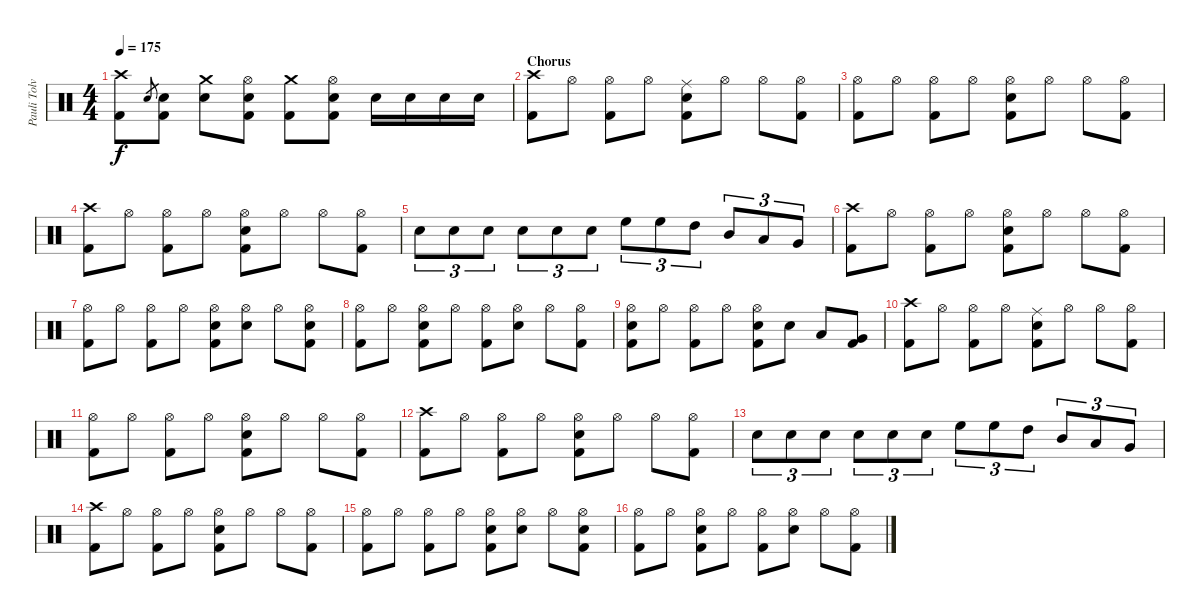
\track ("Pauli Tolvanen-Drums" "Pauli Tolv") {instrument percussion}
\staff {score}
\articulation defaults
\ts (4 4)
\tempo 175
\clef neutral
\ks c
("Crash high (hit)" "Kick (hit) 2").8{dy f} "Snare (hit) 2".8{gr} ("Snare (hit) 2" "Kick (hit) 2").8 ("Crash medium (hit)" "Snare (hit) 2").8 ("Hi-Hat (open)" "Snare (hit) 2" "Kick (hit) 2").8 ("Crash medium (hit)" "Kick (hit) 2").8 ("Hi-Hat (open)" "Snare (hit) 2" "Kick (hit) 2").8 "Snare (hit) 2".16 "Snare (hit) 2".16 "Snare (hit) 2".16 "Snare (hit) 2".16 |
\section ("" "Chorus")
("Crash high (hit)" "Kick (hit) 2").8 "Hi-Hat (open)".8 ("Hi-Hat (open)" "Kick (hit) 2").8 "Hi-Hat (open)".8 ("Ride (middle)" "Snare (hit) 2" "Kick (hit) 2").8 "Hi-Hat (open)".8 "Hi-Hat (open)".8 ("Hi-Hat (open)" "Kick (hit) 2").8 |
("Hi-Hat (open)" "Kick (hit) 2").8 "Hi-Hat (open)".8 ("Hi-Hat (open)" "Kick (hit) 2").8 "Hi-Hat (open)".8 ("Hi-Hat (open)" "Snare (hit) 2" "Kick (hit) 2").8 "Hi-Hat (open)".8 "Hi-Hat (open)".8 ("Hi-Hat (open)" "Kick (hit) 2").8 |
("Crash high (hit)" "Kick (hit) 2").8 "Hi-Hat (open)".8 ("Hi-Hat (open)" "Kick (hit) 2").8 "Hi-Hat (open)".8 ("Hi-Hat (open)" "Snare (hit) 2" "Kick (hit) 2").8 "Hi-Hat (open)".8 "Hi-Hat (open)".8 ("Hi-Hat (open)" "Kick (hit) 2").8 |
"Snare (hit) 2".8{tu (3 2)} "Snare (hit) 2".8{tu (3 2)} "Snare (hit) 2".8{tu (3 2)} "Snare (hit) 2".8{tu (3 2)} "Snare (hit) 2".8{tu (3 2)} "Snare (hit) 2".8{tu (3 2)} "High Floor Tom (hit)".8{tu (3 2)} "High Floor Tom (hit)".8{tu (3 2)} "High Tom (hit)".8{tu (3 2)} "Mid Tom (hit)".8{tu (3 2)} "Low Tom (hit)".8{tu (3 2)} "Very Low Tom (hit)".8{tu (3 2)} |
("Crash high (hit)" "Kick (hit) 2").8 "Hi-Hat (open)".8 ("Hi-Hat (open)" "Kick (hit) 2").8 "Hi-Hat (open)".8 ("Hi-Hat (open)" "Snare (hit) 2" "Kick (hit) 2").8 "Hi-Hat (open)".8 "Hi-Hat (open)".8 ("Hi-Hat (open)" "Kick (hit) 2").8 |
("Hi-Hat (open)" "Kick (hit) 2").8 "Hi-Hat (open)".8 ("Hi-Hat (open)" "Kick (hit) 2").8 "Hi-Hat (open)".8 ("Hi-Hat (open)" "Snare (hit) 2" "Kick (hit) 2").8 ("Hi-Hat (open)" "Snare (hit) 2").8 "Hi-Hat (open)".8 ("Hi-Hat (open)" "Snare (hit) 2" "Kick (hit) 2").8 |
("Hi-Hat (open)" "Kick (hit) 2").8 "Hi-Hat (open)".8 ("Hi-Hat (open)" "Snare (hit) 2" "Kick (hit) 2").8 "Hi-Hat (open)".8 ("Hi-Hat (open)" "Kick (hit) 2").8 ("Hi-Hat (open)" "Snare (hit) 2").8 "Hi-Hat (open)".8 ("Hi-Hat (open)" "Kick (hit) 2").8 |
("Hi-Hat (open)" "Snare (hit) 2" "Kick (hit) 2").8 "Hi-Hat (open)".8 ("Hi-Hat (open)" "Kick (hit) 2").8 "Hi-Hat (open)".8 ("Hi-Hat (open)" "Snare (hit) 2" "Kick (hit) 2").8 "Snare (hit) 2".8 "Low Tom (hit)".8 ("Very Low Tom (hit)" "Kick (hit) 2").8 |
("Crash high (hit)" "Kick (hit) 2").8 "Hi-Hat (open)".8 ("Hi-Hat (open)" "Kick (hit) 2").8 "Hi-Hat (open)".8 ("Ride (middle)" "Snare (hit) 2" "Kick (hit) 2").8 "Hi-Hat (open)".8 "Hi-Hat (open)".8 ("Hi-Hat (open)" "Kick (hit) 2").8 |
("Hi-Hat (open)" "Kick (hit) 2").8 "Hi-Hat (open)".8 ("Hi-Hat (open)" "Kick (hit) 2").8 "Hi-Hat (open)".8 ("Hi-Hat (open)" "Snare (hit) 2" "Kick (hit) 2").8 "Hi-Hat (open)".8 "Hi-Hat (open)".8 ("Hi-Hat (open)" "Kick (hit) 2").8 |
("Crash high (hit)" "Kick (hit) 2").8 "Hi-Hat (open)".8 ("Hi-Hat (open)" "Kick (hit) 2").8 "Hi-Hat (open)".8 ("Hi-Hat (open)" "Snare (hit) 2" "Kick (hit) 2").8 "Hi-Hat (open)".8 "Hi-Hat (open)".8 ("Hi-Hat (open)" "Kick (hit) 2").8 |
"Snare (hit) 2".8{tu (3 2)} "Snare (hit) 2".8{tu (3 2)} "Snare (hit) 2".8{tu (3 2)} "Snare (hit) 2".8{tu (3 2)} "Snare (hit) 2".8{tu (3 2)} "Snare (hit) 2".8{tu (3 2)} "High Floor Tom (hit)".8{tu (3 2)} "High Floor Tom (hit)".8{tu (3 2)} "High Tom (hit)".8{tu (3 2)} "Mid Tom (hit)".8{tu (3 2)} "Low Tom (hit)".8{tu (3 2)} "Very Low Tom (hit)".8{tu (3 2)} |
("Crash high (hit)" "Kick (hit) 2").8 "Hi-Hat (open)".8 ("Hi-Hat (open)" "Kick (hit) 2").8 "Hi-Hat (open)".8 ("Hi-Hat (open)" "Snare (hit) 2" "Kick (hit) 2").8 "Hi-Hat (open)".8 "Hi-Hat (open)".8 ("Hi-Hat (open)" "Kick (hit) 2").8 |
("Hi-Hat (open)" "Kick (hit) 2").8 "Hi-Hat (open)".8 ("Hi-Hat (open)" "Kick (hit) 2").8 "Hi-Hat (open)".8 ("Hi-Hat (open)" "Snare (hit) 2" "Kick (hit) 2").8 ("Hi-Hat (open)" "Snare (hit) 2").8 "Hi-Hat (open)".8 ("Hi-Hat (open)" "Snare (hit) 2" "Kick (hit) 2").8 |
("Hi-Hat (open)" "Kick (hit) 2").8 "Hi-Hat (open)".8 ("Hi-Hat (open)" "Snare (hit) 2" "Kick (hit) 2").8 "Hi-Hat (open)".8 ("Hi-Hat (open)" "Kick (hit) 2").8 ("Hi-Hat (open)" "Snare (hit) 2").8 "Hi-Hat (open)".8 ("Hi-Hat (open)" "Kick (hit) 2").8
